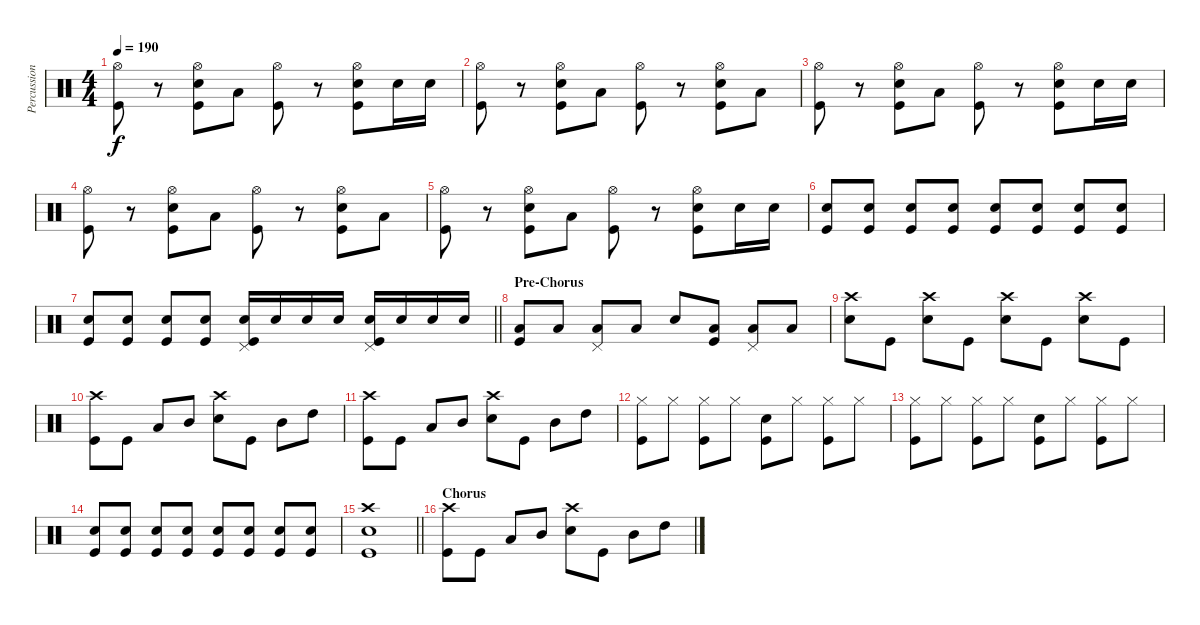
\track ("Percussion" "Percussion") {instrument percussion}
\staff {score}
\articulation defaults
\ts (4 4)
\tempo 190
\clef neutral
\ks c
("Hi-Hat (open)" "Kick (hit)").8{dy f} r.8 ("Snare (hit) 2" "Hi-Hat (open)" "Kick (hit)").8 "Low Tom (hit)".8 ("Hi-Hat (open)" "Kick (hit)").8 r.8 ("Snare (hit) 2" "Hi-Hat (open)" "Kick (hit)").8 "Snare (hit) 2".16 "Snare (hit) 2".16 |
("Hi-Hat (open)" "Kick (hit)").8 r.8 ("Snare (hit) 2" "Hi-Hat (open)" "Kick (hit)").8 "Low Tom (hit)".8 ("Hi-Hat (open)" "Kick (hit)").8 r.8 ("Snare (hit) 2" "Hi-Hat (open)" "Kick (hit)").8 "Low Tom (hit)".8 |
("Hi-Hat (open)" "Kick (hit)").8 r.8 ("Snare (hit) 2" "Hi-Hat (open)" "Kick (hit)").8 "Low Tom (hit)".8 ("Hi-Hat (open)" "Kick (hit)").8 r.8 ("Snare (hit) 2" "Hi-Hat (open)" "Kick (hit)").8 "Snare (hit) 2".16 "Snare (hit) 2".16 |
("Hi-Hat (open)" "Kick (hit)").8 r.8 ("Snare (hit) 2" "Hi-Hat (open)" "Kick (hit)").8 "Low Tom (hit)".8 ("Hi-Hat (open)" "Kick (hit)").8 r.8 ("Snare (hit) 2" "Hi-Hat (open)" "Kick (hit)").8 "Low Tom (hit)".8 |
("Hi-Hat (open)" "Kick (hit)").8 r.8 ("Snare (hit) 2" "Hi-Hat (open)" "Kick (hit)").8 "Low Tom (hit)".8 ("Hi-Hat (open)" "Kick (hit)").8 r.8 ("Snare (hit) 2" "Hi-Hat (open)" "Kick (hit)").8 "Snare (hit) 2".16 "Snare (hit) 2".16 |
("Snare (hit) 2" "Kick (hit)").8 ("Snare (hit) 2" "Kick (hit)").8 ("Snare (hit) 2" "Kick (hit)").8 ("Snare (hit) 2" "Kick (hit)").8 ("Snare (hit) 2" "Kick (hit)").8 ("Snare (hit) 2" "Kick (hit)").8 ("Snare (hit) 2" "Kick (hit)").8 ("Snare (hit) 2" "Kick (hit)").8 |
\barLineRight lightlight
("Snare (hit) 2" "Kick (hit)").8 ("Snare (hit) 2" "Kick (hit)").8 ("Snare (hit) 2" "Kick (hit)").8 ("Snare (hit) 2" "Kick (hit)").8 ("Pedal Hi-Hat (hit)" "Snare (hit) 2" "Kick (hit)").16 "Snare (hit) 2".16 "Snare (hit) 2".16 "Snare (hit) 2".16 ("Pedal Hi-Hat (hit)" "Snare (hit) 2" "Kick (hit)").16 "Snare (hit) 2".16 "Snare (hit) 2".16 "Snare (hit) 2".16 |
\section ("" "Pre-Chorus")
("Low Tom (hit)" "Kick (hit)").8 "Low Tom (hit)".8 ("Pedal Hi-Hat (hit)" "Low Tom (hit)").8 "Low Tom (hit)".8 "Snare (hit) 2".8 ("Low Tom (hit)" "Kick (hit)").8 ("Pedal Hi-Hat (hit)" "Low Tom (hit)").8 "Low Tom (hit)".8 |
("Crash high (hit)" "Snare (hit) 2").8 "Kick (hit)".8 ("Crash high (hit)" "Snare (hit) 2").8 "Kick (hit)".8 ("Crash high (hit)" "Snare (hit) 2").8 "Kick (hit)".8 ("Crash high (hit)" "Snare (hit) 2").8 "Kick (hit)".8 |
("Crash high (hit)" "Kick (hit)").8 "Kick (hit)".8 "Low Tom (hit)".8 "Mid Tom (hit)".8 ("Crash high (hit)" "Snare (hit) 2").8 "Kick (hit)".8 "Mid Tom (hit)".8 "High Tom (hit)".8 |
("Crash high (hit)" "Kick (hit)").8 "Kick (hit)".8 "Low Tom (hit)".8 "Mid Tom (hit)".8 ("Crash high (hit)" "Snare (hit) 2").8 "Kick (hit)".8 "Mid Tom (hit)".8 "High Tom (hit)".8 |
("Hi-Hat (closed)" "Kick (hit)").8 "Hi-Hat (closed)".8 ("Hi-Hat (closed)" "Kick (hit)").8 "Hi-Hat (closed)".8 ("Snare (hit) 2" "Kick (hit)").8 "Hi-Hat (closed)".8 ("Hi-Hat (closed)" "Kick (hit)").8 "Hi-Hat (closed)".8 |
("Hi-Hat (closed)" "Kick (hit)").8 "Hi-Hat (closed)".8 ("Hi-Hat (closed)" "Kick (hit)").8 "Hi-Hat (closed)".8 ("Snare (hit) 2" "Kick (hit)").8 "Hi-Hat (closed)".8 ("Hi-Hat (closed)" "Kick (hit)").8 "Hi-Hat (closed)".8 |
("Snare (hit) 2" "Kick (hit)").8 ("Snare (hit) 2" "Kick (hit)").8 ("Snare (hit) 2" "Kick (hit)").8 ("Snare (hit) 2" "Kick (hit)").8 ("Snare (hit) 2" "Kick (hit)").8 ("Snare (hit) 2" "Kick (hit)").8 ("Snare (hit) 2" "Kick (hit)").8 ("Snare (hit) 2" "Kick (hit)").8 |
\barLineRight lightlight
("Crash high (hit)" "Snare (hit) 2" "Kick (hit)").1 |
\section ("" "Chorus")
("Crash high (hit)" "Kick (hit)").8 "Kick (hit)".8 "Low Tom (hit)".8 "Mid Tom (hit)".8 ("Crash high (hit)" "Snare (hit) 2").8 "Kick (hit)".8 "Mid Tom (hit)".8 "High Tom (hit)".8
